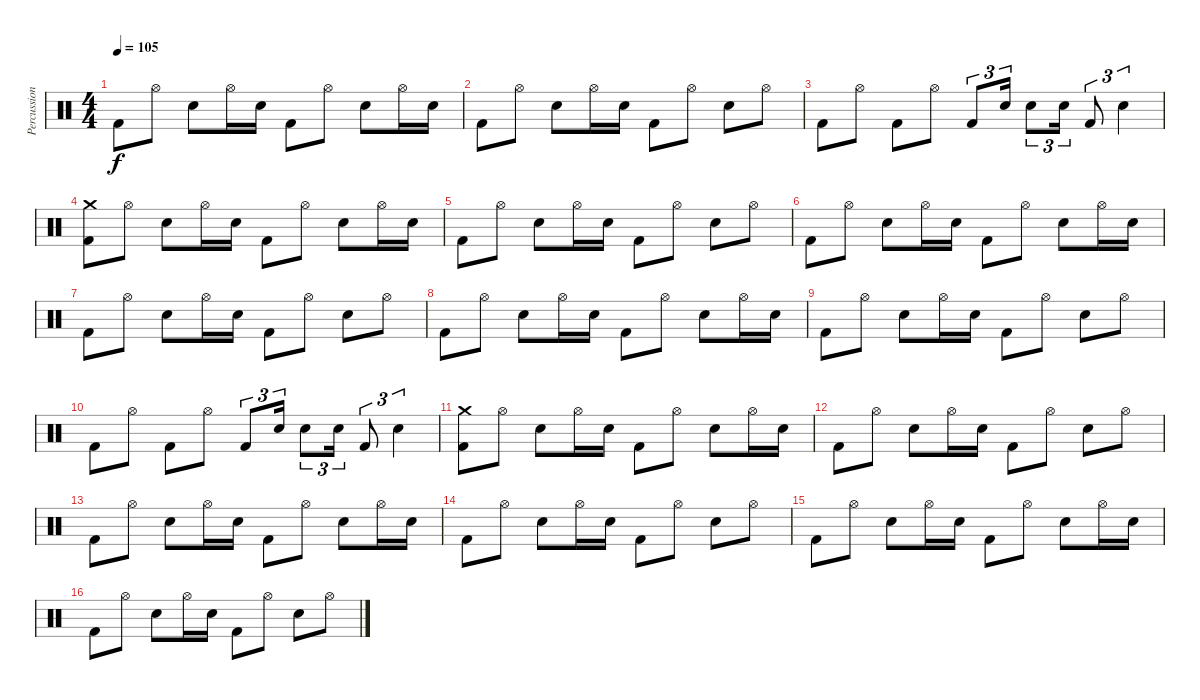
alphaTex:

\track ("Percussion" "Percussion") {instrument percussion}
\staff {score}
\articulation defaults
\ts (4 4)
\tempo 105
\clef neutral
\ks c "Kick (hit) 2".8{dy f} "Hi-Hat (open)".8 "Electric Snare (hit)".8 "Hi-Hat (open)".16 "Electric Snare (hit)".16 "Kick (hit) 2".8 "Hi-Hat (open)".8 "Electric Snare (hit)".8 "Hi-Hat (open)".16 "Electric Snare (hit)".16
|
"Kick (hit) 2".8 "Hi-Hat (open)".8 "Electric Snare (hit)".8 "Hi-Hat (open)".16 "Electric Snare (hit)".16 "Kick (hit) 2".8 "Hi-Hat (open)".8 "Electric Snare (hit)".8 "Hi-Hat (open)".8 |
"Kick (hit) 2".8 "Hi-Hat (open)".8 "Kick (hit) 2".8 "Hi-Hat (open)".8 "Kick (hit) 2".8{tu (3 2)} "Electric Snare (hit)".16{tu (3 2)} "Electric Snare (hit)".8{tu (3 2)} "Electric Snare (hit)".16{tu (3 2)} "Kick (hit) 2".8{tu (3 2)} "Electric Snare (hit)".4{tu (3 2)} |
("Crash medium (hit)" "Kick (hit) 2").8 "Hi-Hat (open)".8 "Electric Snare (hit)".8 "Hi-Hat (open)".16 "Electric Snare (hit)".16 "Kick (hit) 2".8 "Hi-Hat (open)".8 "Electric Snare (hit)".8 "Hi-Hat (open)".16 "Electric Snare (hit)".16 |
"Kick (hit) 2".8 "Hi-Hat (open)".8 "Electric Snare (hit)".8 "Hi-Hat (open)".16 "Electric Snare (hit)".16 "Kick (hit) 2".8 "Hi-Hat (open)".8 "Electric Snare (hit)".8 "Hi-Hat (open)".8 |
"Kick (hit) 2".8 "Hi-Hat (open)".8 "Electric Snare (hit)".8 "Hi-Hat (open)".16 "Electric Snare (hit)".16 "Kick (hit) 2".8 "Hi-Hat (open)".8 "Electric Snare (hit)".8 "Hi-Hat (open)".16 "Electric Snare (hit)".16 |
"Kick (hit) 2".8 "Hi-Hat (open)".8 "Electric Snare (hit)".8 "Hi-Hat (open)".16 "Electric Snare (hit)".16 "Kick (hit) 2".8 "Hi-Hat (open)".8 "Electric Snare (hit)".8 "Hi-Hat (open)".8 |
"Kick (hit) 2".8 "Hi-Hat (open)".8 "Electric Snare (hit)".8 "Hi-Hat (open)".16 "Electric Snare (hit)".16 "Kick (hit) 2".8 "Hi-Hat (open)".8 "Electric Snare (hit)".8 "Hi-Hat (open)".16 "Electric Snare (hit)".16 |
"Kick (hit) 2".8 "Hi-Hat (open)".8 "Electric Snare (hit)".8 "Hi-Hat (open)".16 "Electric Snare (hit)".16 "Kick (hit) 2".8 "Hi-Hat (open)".8 "Electric Snare (hit)".8 "Hi-Hat (open)".8 |
"Kick (hit) 2".8 "Hi-Hat (open)".8 "Kick (hit) 2".8 "Hi-Hat (open)".8 "Kick (hit) 2".8{tu (3 2)} "Electric Snare (hit)".16{tu (3 2)} "Electric Snare (hit)".8{tu (3 2)} "Electric Snare (hit)".16{tu (3 2)} "Kick (hit) 2".8{tu (3 2)} "Electric Snare (hit)".4{tu (3 2)} |
("Crash medium (hit)" "Kick (hit) 2").8 "Hi-Hat (open)".8 "Electric Snare (hit)".8 "Hi-Hat (open)".16 "Electric Snare (hit)".16 "Kick (hit) 2".8 "Hi-Hat (open)".8 "Electric Snare (hit)".8 "Hi-Hat (open)".16 "Electric Snare (hit)".16 |
"Kick (hit) 2".8 "Hi-Hat (open)".8 "Electric Snare (hit)".8 "Hi-Hat (open)".16 "Electric Snare (hit)".16 "Kick (hit) 2".8 "Hi-Hat (open)".8 "Electric Snare (hit)".8 "Hi-Hat (open)".8 |
"Kick (hit) 2".8 "Hi-Hat (open)".8 "Electric Snare (hit)".8 "Hi-Hat (open)".16 "Electric Snare (hit)".16 "Kick (hit) 2".8 "Hi-Hat (open)".8 "Electric Snare (hit)".8 "Hi-Hat (open)".16 "Electric Snare (hit)".16 |
"Kick (hit) 2".8 "Hi-Hat (open)".8 "Electric Snare (hit)".8 "Hi-Hat (open)".16 "Electric Snare (hit)".16 "Kick (hit) 2".8 "Hi-Hat (open)".8 "Electric Snare (hit)".8 "Hi-Hat (open)".8 |
"Kick (hit) 2".8 "Hi-Hat (open)".8 "Electric Snare (hit)".8 "Hi-Hat (open)".16 "Electric Snare (hit)".16 "Kick (hit) 2".8 "Hi-Hat (open)".8 "Electric Snare (hit)".8 "Hi-Hat (open)".16 "Electric Snare (hit)".16 |
"Kick (hit) 2".8 "Hi-Hat (open)".8 "Electric Snare (hit)".8 "Hi-Hat (open)".16 "Electric Snare (hit)".16 "Kick (hit) 2".8 "Hi-Hat (open)".8 "Electric Snare (hit)".8 "Hi-Hat (open)".8
